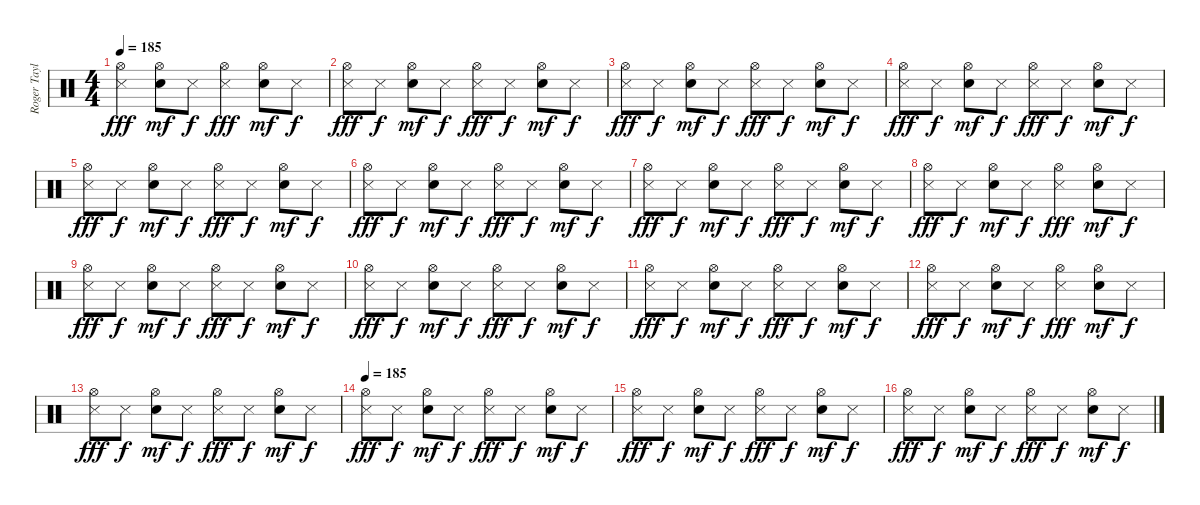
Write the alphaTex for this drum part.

\track ("Roger Taylor" "Roger Tayl") {instrument percussion}
\staff {score}
\articulation defaults
\ts (4 4)
\tempo 185
\clef neutral
\ks c
("Metronome (hit)" "Hi-Hat (open)").4{dy fff} ("Snare (hit) 2" "Hi-Hat (open)").8{dy mf} "Metronome (hit)".8{dy f} ("Metronome (hit)" "Hi-Hat (open)").4{dy fff} ("Snare (hit) 2" "Hi-Hat (open)").8{dy mf} "Metronome (hit)".8{dy f} |
("Metronome (hit)" "Hi-Hat (open)").8{dy fff} "Metronome (hit)".8{dy f} ("Snare (hit) 2" "Hi-Hat (open)").8{dy mf} "Metronome (hit)".8{dy f} ("Metronome (hit)" "Hi-Hat (open)").8{dy fff} "Metronome (hit)".8{dy f} ("Snare (hit) 2" "Hi-Hat (open)").8{dy mf} "Metronome (hit)".8{dy f} |
("Metronome (hit)" "Hi-Hat (open)").8{dy fff} "Metronome (hit)".8{dy f} ("Snare (hit) 2" "Hi-Hat (open)").8{dy mf} "Metronome (hit)".8{dy f} ("Metronome (hit)" "Hi-Hat (open)").8{dy fff} "Metronome (hit)".8{dy f} ("Snare (hit) 2" "Hi-Hat (open)").8{dy mf} "Metronome (hit)".8{dy f} |
("Metronome (hit)" "Hi-Hat (open)").8{dy fff} "Metronome (hit)".8{dy f} ("Snare (hit) 2" "Hi-Hat (open)").8{dy mf} "Metronome (hit)".8{dy f} ("Metronome (hit)" "Hi-Hat (open)").8{dy fff} "Metronome (hit)".8{dy f} ("Snare (hit) 2" "Hi-Hat (open)").8{dy mf} "Metronome (hit)".8{dy f} |
("Metronome (hit)" "Hi-Hat (open)").8{dy fff} "Metronome (hit)".8{dy f} ("Snare (hit) 2" "Hi-Hat (open)").8{dy mf} "Metronome (hit)".8{dy f} ("Metronome (hit)" "Hi-Hat (open)").8{dy fff} "Metronome (hit)".8{dy f} ("Snare (hit) 2" "Hi-Hat (open)").8{dy mf} "Metronome (hit)".8{dy f} |
("Metronome (hit)" "Hi-Hat (open)").8{dy fff} "Metronome (hit)".8{dy f} ("Snare (hit) 2" "Hi-Hat (open)").8{dy mf} "Metronome (hit)".8{dy f} ("Metronome (hit)" "Hi-Hat (open)").8{dy fff} "Metronome (hit)".8{dy f} ("Snare (hit) 2" "Hi-Hat (open)").8{dy mf} "Metronome (hit)".8{dy f} |
("Metronome (hit)" "Hi-Hat (open)").8{dy fff} "Metronome (hit)".8{dy f} ("Snare (hit) 2" "Hi-Hat (open)").8{dy mf} "Metronome (hit)".8{dy f} ("Metronome (hit)" "Hi-Hat (open)").8{dy fff} "Metronome (hit)".8{dy f} ("Snare (hit) 2" "Hi-Hat (open)").8{dy mf} "Metronome (hit)".8{dy f} |
("Metronome (hit)" "Hi-Hat (open)").8{dy fff} "Metronome (hit)".8{dy f} ("Snare (hit) 2" "Hi-Hat (open)").8{dy mf} "Metronome (hit)".8{dy f} ("Metronome (hit)" "Hi-Hat (open)").4{dy fff} ("Snare (hit) 2" "Hi-Hat (open)").8{dy mf} "Metronome (hit)".8{dy f} |
("Metronome (hit)" "Hi-Hat (open)").8{dy fff} "Metronome (hit)".8{dy f} ("Snare (hit) 2" "Hi-Hat (open)").8{dy mf} "Metronome (hit)".8{dy f} ("Metronome (hit)" "Hi-Hat (open)").8{dy fff} "Metronome (hit)".8{dy f} ("Snare (hit) 2" "Hi-Hat (open)").8{dy mf} "Metronome (hit)".8{dy f} |
("Metronome (hit)" "Hi-Hat (open)").8{dy fff} "Metronome (hit)".8{dy f} ("Snare (hit) 2" "Hi-Hat (open)").8{dy mf} "Metronome (hit)".8{dy f} ("Metronome (hit)" "Hi-Hat (open)").8{dy fff} "Metronome (hit)".8{dy f} ("Snare (hit) 2" "Hi-Hat (open)").8{dy mf} "Metronome (hit)".8{dy f} |
("Metronome (hit)" "Hi-Hat (open)").8{dy fff} "Metronome (hit)".8{dy f} ("Snare (hit) 2" "Hi-Hat (open)").8{dy mf} "Metronome (hit)".8{dy f} ("Metronome (hit)" "Hi-Hat (open)").8{dy fff} "Metronome (hit)".8{dy f} ("Snare (hit) 2" "Hi-Hat (open)").8{dy mf} "Metronome (hit)".8{dy f} |
("Metronome (hit)" "Hi-Hat (open)").8{dy fff} "Metronome (hit)".8{dy f} ("Snare (hit) 2" "Hi-Hat (open)").8{dy mf} "Metronome (hit)".8{dy f} ("Metronome (hit)" "Hi-Hat (open)").4{dy fff} ("Snare (hit) 2" "Hi-Hat (open)").8{dy mf} "Metronome (hit)".8{dy f} |
("Metronome (hit)" "Hi-Hat (open)").8{dy fff} "Metronome (hit)".8{dy f} ("Snare (hit) 2" "Hi-Hat (open)").8{dy mf} "Metronome (hit)".8{dy f} ("Metronome (hit)" "Hi-Hat (open)").8{dy fff} "Metronome (hit)".8{dy f} ("Snare (hit) 2" "Hi-Hat (open)").8{dy mf} "Metronome (hit)".8{dy f} |
\tempo 185
("Metronome (hit)" "Hi-Hat (open)").8{dy fff} "Metronome (hit)".8{dy f} ("Snare (hit) 2" "Hi-Hat (open)").8{dy mf} "Metronome (hit)".8{dy f} ("Metronome (hit)" "Hi-Hat (open)").8{dy fff} "Metronome (hit)".8{dy f} ("Snare (hit) 2" "Hi-Hat (open)").8{dy mf} "Metronome (hit)".8{dy f} |
("Metronome (hit)" "Hi-Hat (open)").8{dy fff} "Metronome (hit)".8{dy f} ("Snare (hit) 2" "Hi-Hat (open)").8{dy mf} "Metronome (hit)".8{dy f} ("Metronome (hit)" "Hi-Hat (open)").8{dy fff} "Metronome (hit)".8{dy f} ("Snare (hit) 2" "Hi-Hat (open)").8{dy mf} "Metronome (hit)".8{dy f} |
("Metronome (hit)" "Hi-Hat (open)").8{dy fff} "Metronome (hit)".8{dy f} ("Snare (hit) 2" "Hi-Hat (open)").8{dy mf} "Metronome (hit)".8{dy f} ("Metronome (hit)" "Hi-Hat (open)").8{dy fff} "Metronome (hit)".8{dy f} ("Snare (hit) 2" "Hi-Hat (open)").8{dy mf} "Metronome (hit)".8{dy f}
